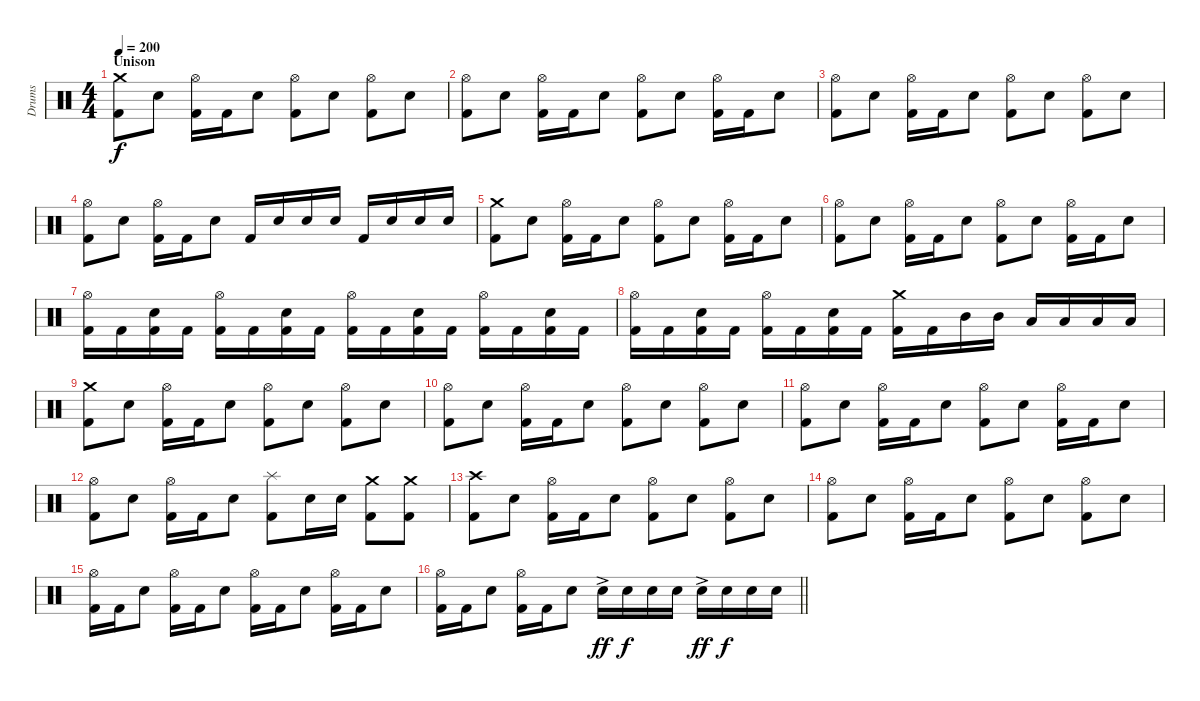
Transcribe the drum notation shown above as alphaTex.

\track ("Drums" "Drums") {instrument percussion}
\staff {score}
\articulation defaults
\ts (4 4)
\section ("" "Unison")
\tempo 200
\clef neutral
\ks c
("Crash medium (hit)" "Kick (hit) 2").8{dy f} "Electric Snare (hit)".8 ("Hi-Hat (open)" "Kick (hit) 2").16 "Kick (hit) 2".16 "Electric Snare (hit)".8 ("Hi-Hat (open)" "Kick (hit) 2").8 "Electric Snare (hit)".8 ("Hi-Hat (open)" "Kick (hit) 2").8 "Electric Snare (hit)".8 |
("Hi-Hat (open)" "Kick (hit) 2").8 "Electric Snare (hit)".8 ("Hi-Hat (open)" "Kick (hit) 2").16 "Kick (hit) 2".16 "Electric Snare (hit)".8 ("Hi-Hat (open)" "Kick (hit) 2").8 "Electric Snare (hit)".8 ("Hi-Hat (open)" "Kick (hit) 2").16 "Kick (hit) 2".16 "Electric Snare (hit)".8 |
("Hi-Hat (open)" "Kick (hit) 2").8 "Electric Snare (hit)".8 ("Hi-Hat (open)" "Kick (hit) 2").16 "Kick (hit) 2".16 "Electric Snare (hit)".8 ("Hi-Hat (open)" "Kick (hit) 2").8 "Electric Snare (hit)".8 ("Hi-Hat (open)" "Kick (hit) 2").8 "Electric Snare (hit)".8 |
("Hi-Hat (open)" "Kick (hit) 2").8 "Electric Snare (hit)".8 ("Hi-Hat (open)" "Kick (hit) 2").16 "Kick (hit) 2".16 "Electric Snare (hit)".8 "Kick (hit) 2".16 "Electric Snare (hit)".16 "Electric Snare (hit)".16 "Electric Snare (hit)".16 "Kick (hit) 2".16 "Electric Snare (hit)".16 "Electric Snare (hit)".16 "Electric Snare (hit)".16 |
("Crash medium (hit)" "Kick (hit) 2").8 "Electric Snare (hit)".8 ("Hi-Hat (open)" "Kick (hit) 2").16 "Kick (hit) 2".16 "Electric Snare (hit)".8 ("Hi-Hat (open)" "Kick (hit) 2").8 "Electric Snare (hit)".8 ("Hi-Hat (open)" "Kick (hit) 2").16 "Kick (hit) 2".16 "Electric Snare (hit)".8 |
("Hi-Hat (open)" "Kick (hit) 2").8 "Electric Snare (hit)".8 ("Hi-Hat (open)" "Kick (hit) 2").16 "Kick (hit) 2".16 "Electric Snare (hit)".8 ("Hi-Hat (open)" "Kick (hit) 2").8 "Electric Snare (hit)".8 ("Hi-Hat (open)" "Kick (hit) 2").16 "Kick (hit) 2".16 "Electric Snare (hit)".8 |
("Hi-Hat (open)" "Kick (hit) 2").16 "Kick (hit) 2".16 ("Electric Snare (hit)" "Kick (hit) 2").16 "Kick (hit) 2".16 ("Hi-Hat (open)" "Kick (hit) 2").16 "Kick (hit) 2".16 ("Electric Snare (hit)" "Kick (hit) 2").16 "Kick (hit) 2".16 ("Hi-Hat (open)" "Kick (hit) 2").16 "Kick (hit) 2".16 ("Electric Snare (hit)" "Kick (hit) 2").16 "Kick (hit) 2".16 ("Hi-Hat (open)" "Kick (hit) 2").16 "Kick (hit) 2".16 ("Electric Snare (hit)" "Kick (hit) 2").16 "Kick (hit) 2".16 |
("Hi-Hat (open)" "Kick (hit) 2").16 "Kick (hit) 2".16 ("Electric Snare (hit)" "Kick (hit) 2").16 "Kick (hit) 2".16 ("Hi-Hat (open)" "Kick (hit) 2").16 "Kick (hit) 2".16 ("Electric Snare (hit)" "Kick (hit) 2").16 "Kick (hit) 2".16 ("Crash medium (hit)" "Kick (hit) 2").16 "Kick (hit) 2".16 "Mid Tom (hit)".16 "Mid Tom (hit)".16 "Low Tom (hit)".16 "Low Tom (hit)".16 "Low Tom (hit)".16 "Low Tom (hit)".16 |
("Crash medium (hit)" "Kick (hit) 2").8 "Electric Snare (hit)".8 ("Hi-Hat (open)" "Kick (hit) 2").16 "Kick (hit) 2".16 "Electric Snare (hit)".8 ("Hi-Hat (open)" "Kick (hit) 2").8 "Electric Snare (hit)".8 ("Hi-Hat (open)" "Kick (hit) 2").8 "Electric Snare (hit)".8 |
("Hi-Hat (open)" "Kick (hit) 2").8 "Electric Snare (hit)".8 ("Hi-Hat (open)" "Kick (hit) 2").16 "Kick (hit) 2".16 "Electric Snare (hit)".8 ("Hi-Hat (open)" "Kick (hit) 2").8 "Electric Snare (hit)".8 ("Hi-Hat (open)" "Kick (hit) 2").8 "Electric Snare (hit)".8 |
("Hi-Hat (open)" "Kick (hit) 2").8 "Electric Snare (hit)".8 ("Hi-Hat (open)" "Kick (hit) 2").16 "Kick (hit) 2".16 "Electric Snare (hit)".8 ("Hi-Hat (open)" "Kick (hit) 2").8 "Electric Snare (hit)".8 ("Hi-Hat (open)" "Kick (hit) 2").16 "Kick (hit) 2".16 "Electric Snare (hit)".8 |
("Hi-Hat (open)" "Kick (hit) 2").8 "Electric Snare (hit)".8 ("Hi-Hat (open)" "Kick (hit) 2").16 "Kick (hit) 2".16 "Electric Snare (hit)".8 ("Splash (hit)" "Kick (hit) 2").8 "Electric Snare (hit)".16 "Electric Snare (hit)".16 ("Crash medium (hit)" "Kick (hit) 2").8 ("Crash medium (hit)" "Kick (hit) 2").8 |
("Crash high (hit)" "Kick (hit) 2").8 "Electric Snare (hit)".8 ("Hi-Hat (open)" "Kick (hit) 2").16 "Kick (hit) 2".16 "Electric Snare (hit)".8 ("Hi-Hat (open)" "Kick (hit) 2").8 "Electric Snare (hit)".8 ("Hi-Hat (open)" "Kick (hit) 2").8 "Electric Snare (hit)".8 |
("Hi-Hat (open)" "Kick (hit) 2").8 "Electric Snare (hit)".8 ("Hi-Hat (open)" "Kick (hit) 2").16 "Kick (hit) 2".16 "Electric Snare (hit)".8 ("Hi-Hat (open)" "Kick (hit) 2").8 "Electric Snare (hit)".8 ("Hi-Hat (open)" "Kick (hit) 2").8 "Electric Snare (hit)".8 |
("Hi-Hat (open)" "Kick (hit) 2").16 "Kick (hit) 2".16 "Electric Snare (hit)".8 ("Hi-Hat (open)" "Kick (hit) 2").16 "Kick (hit) 2".16 "Electric Snare (hit)".8 ("Hi-Hat (open)" "Kick (hit) 2").16 "Kick (hit) 2".16 "Electric Snare (hit)".8 ("Hi-Hat (open)" "Kick (hit) 2").16 "Kick (hit) 2".16 "Electric Snare (hit)".8 |
\barLineRight lightlight
("Hi-Hat (open)" "Kick (hit) 2").16 "Kick (hit) 2".16 "Electric Snare (hit)".8 ("Hi-Hat (open)" "Kick (hit) 2").16 "Kick (hit) 2".16 "Electric Snare (hit)".8 "Electric Snare (hit)"{ac}.16{dy ff} "Electric Snare (hit)".16{dy f} "Electric Snare (hit)".16 "Electric Snare (hit)".16 "Electric Snare (hit)"{ac}.16{dy ff} "Electric Snare (hit)".16{dy f} "Electric Snare (hit)".16 "Electric Snare (hit)".16
